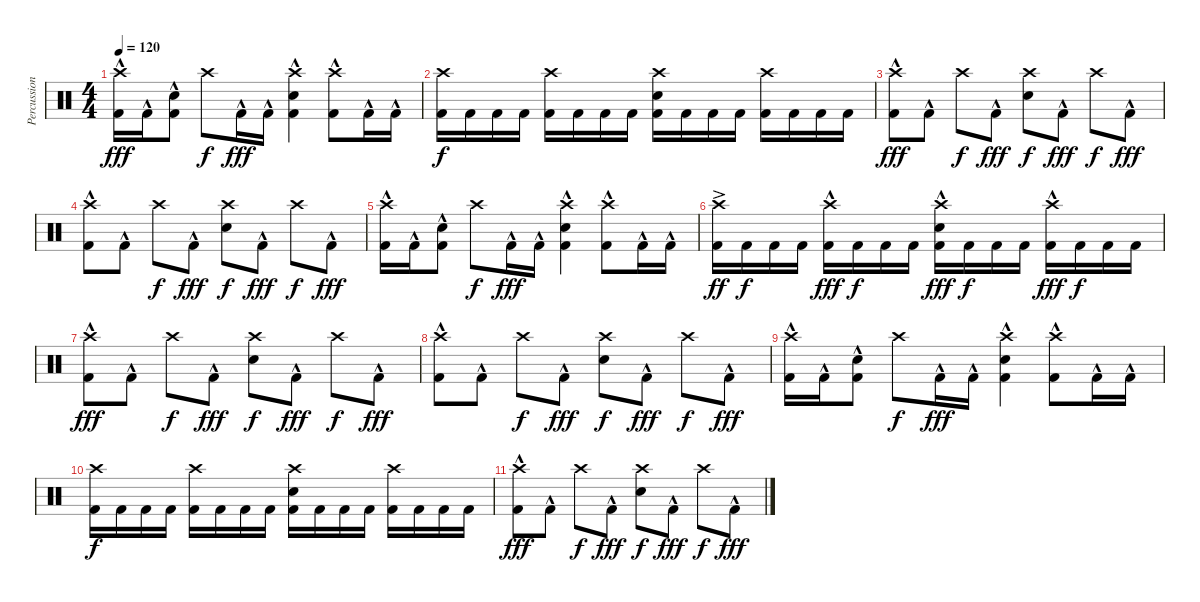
\track ("Percussions" "Percussion") {instrument percussion}
\staff {score}
\articulation defaults
\ts (4 4)
\tempo 120
\clef neutral
\ks c
("Crash high (hit)" "Kick (hit) 2"{hac}).16{dy fff} "Kick (hit) 2"{hac}.16 ("Snare (hit) 2" "Kick (hit) 2"{hac}).8 "Crash high (hit)".8{dy f} "Kick (hit) 2"{hac}.16{dy fff} "Kick (hit) 2"{hac}.16 ("Crash high (hit)" "Snare (hit) 2" "Kick (hit) 2"{hac}).4 ("Crash high (hit)" "Kick (hit) 2"{hac}).8 "Kick (hit) 2"{hac}.16 "Kick (hit) 2"{hac}.16 |
("Crash high (hit)" "Kick (hit) 2").16{dy f} "Kick (hit) 2".16 "Kick (hit) 2".16 "Kick (hit) 2".16 ("Crash high (hit)" "Kick (hit) 2").16 "Kick (hit) 2".16 "Kick (hit) 2".16 "Kick (hit) 2".16 ("Crash high (hit)" "Snare (hit) 2" "Kick (hit) 2").16 "Kick (hit) 2".16 "Kick (hit) 2".16 "Kick (hit) 2".16 ("Crash high (hit)" "Kick (hit) 2").16 "Kick (hit) 2".16 "Kick (hit) 2".16 "Kick (hit) 2".16 |
("Crash high (hit)" "Kick (hit) 2"{hac}).8{dy fff} "Kick (hit) 2"{hac}.8 "Crash high (hit)".8{dy f} "Kick (hit) 2"{hac}.8{dy fff} ("Crash high (hit)" "Snare (hit) 2").8{dy f} "Kick (hit) 2"{hac}.8{dy fff} "Crash high (hit)".8{dy f} "Kick (hit) 2"{hac}.8{dy fff} |
("Crash high (hit)" "Kick (hit) 2"{hac}).8 "Kick (hit) 2"{hac}.8 "Crash high (hit)".8{dy f} "Kick (hit) 2"{hac}.8{dy fff} ("Crash high (hit)" "Snare (hit) 2").8{dy f} "Kick (hit) 2"{hac}.8{dy fff} "Crash high (hit)".8{dy f} "Kick (hit) 2"{hac}.8{dy fff} |
("Crash high (hit)" "Kick (hit) 2"{hac}).16 "Kick (hit) 2"{hac}.16 ("Snare (hit) 2" "Kick (hit) 2"{hac}).8 "Crash high (hit)".8{dy f} "Kick (hit) 2"{hac}.16{dy fff} "Kick (hit) 2"{hac}.16 ("Crash high (hit)" "Snare (hit) 2" "Kick (hit) 2"{hac}).4 ("Crash high (hit)" "Kick (hit) 2"{hac}).8 "Kick (hit) 2"{hac}.16 "Kick (hit) 2"{hac}.16 |
("Crash high (hit)" "Kick (hit) 2"{ac}).16{dy ff} "Kick (hit) 2".16{dy f} "Kick (hit) 2".16 "Kick (hit) 2".16 ("Crash high (hit)" "Kick (hit) 2"{hac}).16{dy fff} "Kick (hit) 2".16{dy f} "Kick (hit) 2".16 "Kick (hit) 2".16 ("Crash high (hit)" "Snare (hit) 2" "Kick (hit) 2"{hac}).16{dy fff} "Kick (hit) 2".16{dy f} "Kick (hit) 2".16 "Kick (hit) 2".16 ("Crash high (hit)" "Kick (hit) 2"{hac}).16{dy fff} "Kick (hit) 2".16{dy f} "Kick (hit) 2".16 "Kick (hit) 2".16 |
("Crash high (hit)" "Kick (hit) 2"{hac}).8{dy fff} "Kick (hit) 2"{hac}.8 "Crash high (hit)".8{dy f} "Kick (hit) 2"{hac}.8{dy fff} ("Crash high (hit)" "Snare (hit) 2").8{dy f} "Kick (hit) 2"{hac}.8{dy fff} "Crash high (hit)".8{dy f} "Kick (hit) 2"{hac}.8{dy fff} |
("Crash high (hit)" "Kick (hit) 2"{hac}).8 "Kick (hit) 2"{hac}.8 "Crash high (hit)".8{dy f} "Kick (hit) 2"{hac}.8{dy fff} ("Crash high (hit)" "Snare (hit) 2").8{dy f} "Kick (hit) 2"{hac}.8{dy fff} "Crash high (hit)".8{dy f} "Kick (hit) 2"{hac}.8{dy fff} |
("Crash high (hit)" "Kick (hit) 2"{hac}).16 "Kick (hit) 2"{hac}.16 ("Snare (hit) 2" "Kick (hit) 2"{hac}).8 "Crash high (hit)".8{dy f} "Kick (hit) 2"{hac}.16{dy fff} "Kick (hit) 2"{hac}.16 ("Crash high (hit)" "Snare (hit) 2" "Kick (hit) 2"{hac}).4 ("Crash high (hit)" "Kick (hit) 2"{hac}).8 "Kick (hit) 2"{hac}.16 "Kick (hit) 2"{hac}.16 |
("Crash high (hit)" "Kick (hit) 2").16{dy f} "Kick (hit) 2".16 "Kick (hit) 2".16 "Kick (hit) 2".16 ("Crash high (hit)" "Kick (hit) 2").16 "Kick (hit) 2".16 "Kick (hit) 2".16 "Kick (hit) 2".16 ("Crash high (hit)" "Snare (hit) 2" "Kick (hit) 2").16 "Kick (hit) 2".16 "Kick (hit) 2".16 "Kick (hit) 2".16 ("Crash high (hit)" "Kick (hit) 2").16 "Kick (hit) 2".16 "Kick (hit) 2".16 "Kick (hit) 2".16 |
("Crash high (hit)" "Kick (hit) 2"{hac}).8{dy fff} "Kick (hit) 2"{hac}.8 "Crash high (hit)".8{dy f} "Kick (hit) 2"{hac}.8{dy fff} ("Crash high (hit)" "Snare (hit) 2").8{dy f} "Kick (hit) 2"{hac}.8{dy fff} "Crash high (hit)".8{dy f} "Kick (hit) 2"{hac}.8{dy fff}
